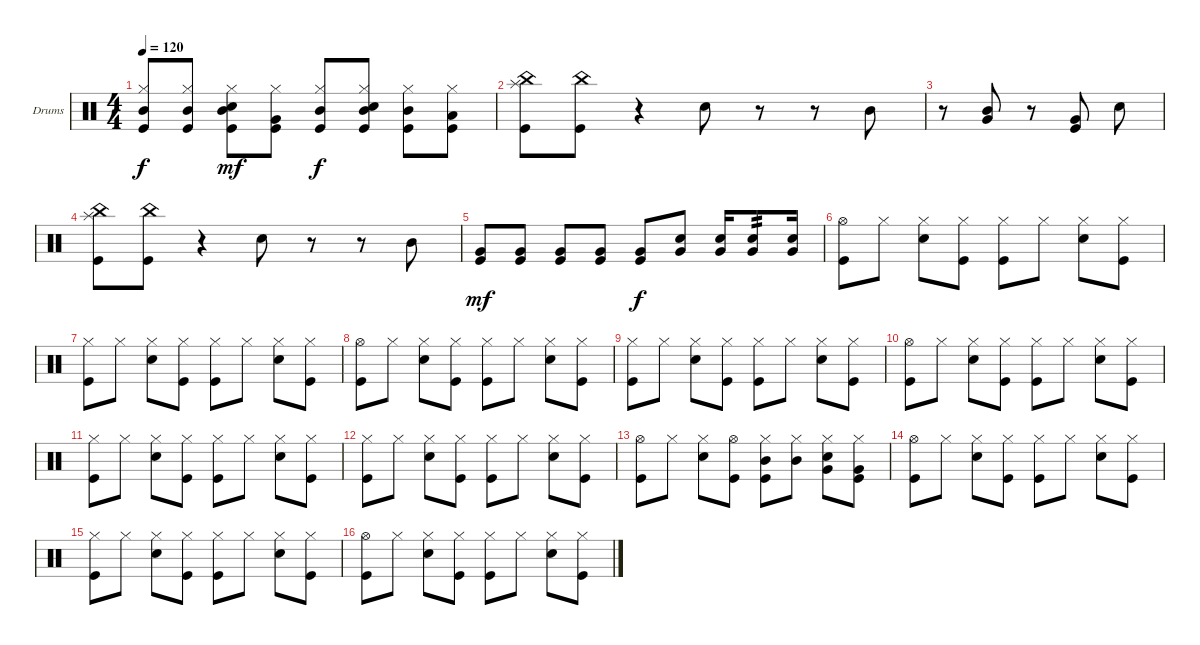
\defaultSystemsLayout 4
\bracketExtendMode groupsimilarinstruments
\firstSystemTrackNameOrientation horizontal
\otherSystemsTrackNameOrientation horizontal
\track ("Drumkit" "Drums") {instrument percussion}
\staff {score}
\articulation defaults
\ts (4 4)
\tempo 120
\clef neutral
\ks c
("Mid Tom (hit)" "Hi-Hat (closed)" "Kick (hit)").8{dy f} ("Mid Tom (hit)" "Hi-Hat (closed)" "Kick (hit)").8 ("Mid Tom (hit)" "Hi-Hat (closed)" "Snare (hit) 2" "Kick (hit)").8{dy mf} ("Very Low Tom (hit)" "Hi-Hat (closed)" "Kick (hit)").8 ("Mid Tom (hit)" "Hi-Hat (closed)" "Kick (hit)").8{dy f} ("Mid Tom (hit)" "Hi-Hat (closed)" "Snare (hit) 2" "Kick (hit)").8 ("Mid Tom (hit)" "Hi-Hat (closed)" "Kick (hit)").8 ("Low Tom (hit)" "Hi-Hat (closed)" "Kick (hit)").8 |
("Kick (hit)" "China (hit)" "Splash (hit)").8 ("Kick (hit)" "China (hit)").8 r.4 "Snare (hit) 2".8 r.8 r.8 "Mid Tom (hit)".8 |
r.8 ("Mid Tom (hit)" "Very Low Tom (hit)").8 r.8 ("Kick (hit)" "Very Low Tom (hit)").8 "Snare (hit) 2".8 |
("Kick (hit)" "China (hit)" "Splash (hit)").8 ("Kick (hit)" "China (hit)").8 r.4 "Snare (hit) 2".8 r.8 r.8 "Mid Tom (hit)".8 |
("Very Low Tom (hit)" "Kick (hit)").8{dy mf} ("Very Low Tom (hit)" "Kick (hit)").8 ("Very Low Tom (hit)" "Kick (hit)").8 ("Very Low Tom (hit)" "Kick (hit)").8 ("Very Low Tom (hit)" "Kick (hit)").8{dy f} ("Very Low Tom (hit)" "Snare (hit) 2").8 ("Very Low Tom (hit)" "Snare (hit) 2").16 ("Very Low Tom (hit)" "Snare (hit) 2").8{tp 2} ("Snare (hit) 2" "Very Low Tom (hit)").16 |
("Kick (hit)" "Hi-Hat (open)").8 "Hi-Hat (closed)".8 ("Snare (hit) 2" "Hi-Hat (closed)").8 ("Kick (hit)" "Hi-Hat (closed)").8 ("Kick (hit)" "Hi-Hat (closed)").8 "Hi-Hat (closed)".8 ("Snare (hit) 2" "Hi-Hat (closed)").8 ("Kick (hit)" "Hi-Hat (closed)").8 |
("Kick (hit)" "Hi-Hat (closed)").8 "Hi-Hat (closed)".8 ("Snare (hit) 2" "Hi-Hat (closed)").8 ("Kick (hit)" "Hi-Hat (closed)").8 ("Kick (hit)" "Hi-Hat (closed)").8 "Hi-Hat (closed)".8 ("Snare (hit) 2" "Hi-Hat (closed)").8 ("Kick (hit)" "Hi-Hat (closed)").8 |
("Kick (hit)" "Hi-Hat (open)").8 "Hi-Hat (closed)".8 ("Snare (hit) 2" "Hi-Hat (closed)").8 ("Kick (hit)" "Hi-Hat (closed)").8 ("Kick (hit)" "Hi-Hat (closed)").8 "Hi-Hat (closed)".8 ("Snare (hit) 2" "Hi-Hat (closed)").8 ("Kick (hit)" "Hi-Hat (closed)").8 |
("Kick (hit)" "Hi-Hat (closed)").8 "Hi-Hat (closed)".8 ("Snare (hit) 2" "Hi-Hat (closed)").8 ("Kick (hit)" "Hi-Hat (closed)").8 ("Kick (hit)" "Hi-Hat (closed)").8 "Hi-Hat (closed)".8 ("Snare (hit) 2" "Hi-Hat (closed)").8 ("Kick (hit)" "Hi-Hat (closed)").8 |
("Kick (hit)" "Hi-Hat (open)").8 "Hi-Hat (closed)".8 ("Snare (hit) 2" "Hi-Hat (closed)").8 ("Kick (hit)" "Hi-Hat (closed)").8 ("Kick (hit)" "Hi-Hat (closed)").8 "Hi-Hat (closed)".8 ("Snare (hit) 2" "Hi-Hat (closed)").8 ("Kick (hit)" "Hi-Hat (closed)").8 |
("Kick (hit)" "Hi-Hat (closed)").8 "Hi-Hat (closed)".8 ("Snare (hit) 2" "Hi-Hat (closed)").8 ("Kick (hit)" "Hi-Hat (closed)").8 ("Kick (hit)" "Hi-Hat (closed)").8 "Hi-Hat (closed)".8 ("Snare (hit) 2" "Hi-Hat (closed)").8 ("Kick (hit)" "Hi-Hat (closed)").8 |
("Kick (hit)" "Hi-Hat (closed)").8 "Hi-Hat (closed)".8 ("Snare (hit) 2" "Hi-Hat (closed)").8 ("Kick (hit)" "Hi-Hat (closed)").8 ("Kick (hit)" "Hi-Hat (closed)").8 "Hi-Hat (closed)".8 ("Snare (hit) 2" "Hi-Hat (closed)").8 ("Kick (hit)" "Hi-Hat (closed)").8 |
("Kick (hit)" "Hi-Hat (open)").8 "Hi-Hat (closed)".8 ("Snare (hit) 2" "Hi-Hat (closed)").8 ("Kick (hit)" "Hi-Hat (open)").8 ("Kick (hit)" "Hi-Hat (closed)" "Mid Tom (hit)").8 ("Hi-Hat (closed)" "Mid Tom (hit)").8 ("Snare (hit) 2" "Hi-Hat (closed)" "Very Low Tom (hit)").8 ("Kick (hit)" "Hi-Hat (closed)" "Very Low Tom (hit)").8 |
("Kick (hit)" "Hi-Hat (open)").8 "Hi-Hat (closed)".8 ("Snare (hit) 2" "Hi-Hat (closed)").8 ("Kick (hit)" "Hi-Hat (closed)").8 ("Kick (hit)" "Hi-Hat (closed)").8 "Hi-Hat (closed)".8 ("Snare (hit) 2" "Hi-Hat (closed)").8 ("Kick (hit)" "Hi-Hat (closed)").8 |
("Kick (hit)" "Hi-Hat (closed)").8 "Hi-Hat (closed)".8 ("Snare (hit) 2" "Hi-Hat (closed)").8 ("Kick (hit)" "Hi-Hat (closed)").8 ("Kick (hit)" "Hi-Hat (closed)").8 "Hi-Hat (closed)".8 ("Snare (hit) 2" "Hi-Hat (closed)").8 ("Kick (hit)" "Hi-Hat (closed)").8 |
("Kick (hit)" "Hi-Hat (open)").8 "Hi-Hat (closed)".8 ("Snare (hit) 2" "Hi-Hat (closed)").8 ("Kick (hit)" "Hi-Hat (closed)").8 ("Kick (hit)" "Hi-Hat (closed)").8 "Hi-Hat (closed)".8 ("Snare (hit) 2" "Hi-Hat (closed)").8 ("Kick (hit)" "Hi-Hat (closed)").8
